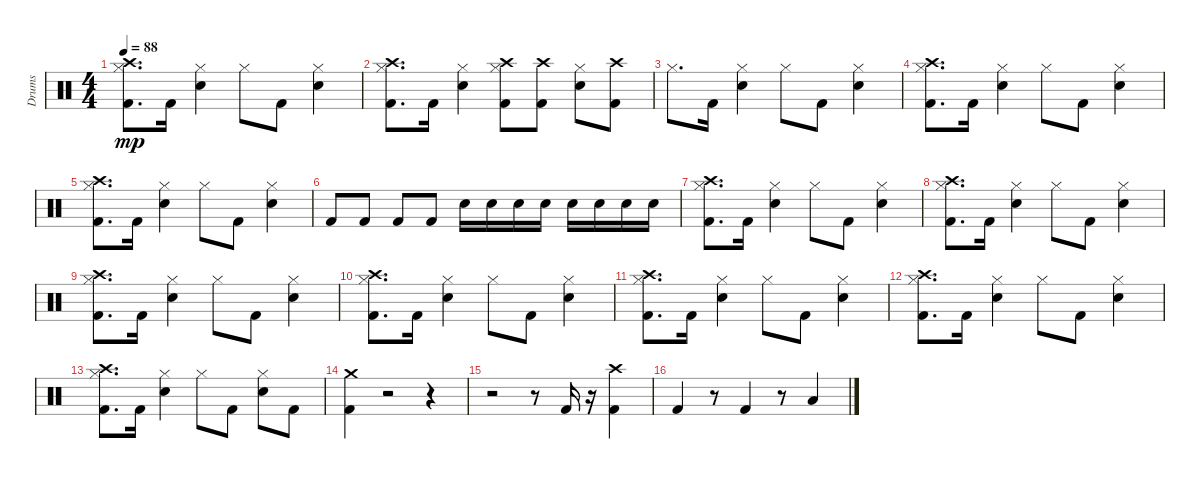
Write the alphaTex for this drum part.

\track ("Drums" "Drums") {instrument percussion}
\staff {score}
\articulation defaults
\ts (4 4)
\tempo 88
\clef neutral
\ks c
("Crash high (hit)" "Hi-Hat (closed)" "Kick (hit) 2").8{d dy mp} "Kick (hit) 2".16 ("Snare (hit) 2" "Hi-Hat (closed)").4 "Hi-Hat (closed)".8 "Kick (hit) 2".8 ("Snare (hit) 2" "Hi-Hat (closed)").4 |
("Crash high (hit)" "Hi-Hat (closed)" "Kick (hit) 2").8{d} "Kick (hit) 2".16 ("Snare (hit) 2" "Hi-Hat (closed)").4 ("Hi-Hat (closed)" "Kick (hit) 2" "Crash high (hit)").8 ("Kick (hit) 2" "Crash high (hit)").8 ("Hi-Hat (closed)" "Snare (hit) 2").8 ("Crash high (hit)" "Kick (hit) 2").8 |
"Hi-Hat (closed)".8{d} "Kick (hit) 2".16 ("Snare (hit) 2" "Hi-Hat (closed)").4 "Hi-Hat (closed)".8 "Kick (hit) 2".8 ("Snare (hit) 2" "Hi-Hat (closed)").4 |
("Crash high (hit)" "Hi-Hat (closed)" "Kick (hit) 2").8{d} "Kick (hit) 2".16 ("Snare (hit) 2" "Hi-Hat (closed)").4 "Hi-Hat (closed)".8 "Kick (hit) 2".8 ("Snare (hit) 2" "Hi-Hat (closed)").4 |
("Crash high (hit)" "Hi-Hat (closed)" "Kick (hit) 2").8{d} "Kick (hit) 2".16 ("Snare (hit) 2" "Hi-Hat (closed)").4 "Hi-Hat (closed)".8 "Kick (hit) 2".8 ("Snare (hit) 2" "Hi-Hat (closed)").4 |
"Kick (hit) 2".8 "Kick (hit) 2".8 "Kick (hit) 2".8 "Kick (hit) 2".8 "Snare (hit) 2".16 "Snare (hit) 2".16 "Snare (hit) 2".16 "Snare (hit) 2".16 "Snare (hit) 2".16 "Snare (hit) 2".16 "Snare (hit) 2".16 "Snare (hit) 2".16 |
("Crash high (hit)" "Hi-Hat (closed)" "Kick (hit) 2").8{d} "Kick (hit) 2".16 ("Snare (hit) 2" "Hi-Hat (closed)").4 "Hi-Hat (closed)".8 "Kick (hit) 2".8 ("Snare (hit) 2" "Hi-Hat (closed)").4 |
("Crash high (hit)" "Hi-Hat (closed)" "Kick (hit) 2").8{d} "Kick (hit) 2".16 ("Snare (hit) 2" "Hi-Hat (closed)").4 "Hi-Hat (closed)".8 "Kick (hit) 2".8 ("Snare (hit) 2" "Hi-Hat (closed)").4 |
("Crash high (hit)" "Hi-Hat (closed)" "Kick (hit) 2").8{d} "Kick (hit) 2".16 ("Snare (hit) 2" "Hi-Hat (closed)").4 "Hi-Hat (closed)".8 "Kick (hit) 2".8 ("Snare (hit) 2" "Hi-Hat (closed)").4 |
("Crash high (hit)" "Hi-Hat (closed)" "Kick (hit) 2").8{d} "Kick (hit) 2".16 ("Snare (hit) 2" "Hi-Hat (closed)").4 "Hi-Hat (closed)".8 "Kick (hit) 2".8 ("Snare (hit) 2" "Hi-Hat (closed)").4 |
("Crash high (hit)" "Hi-Hat (closed)" "Kick (hit) 2").8{d} "Kick (hit) 2".16 ("Snare (hit) 2" "Hi-Hat (closed)").4 "Hi-Hat (closed)".8 "Kick (hit) 2".8 ("Snare (hit) 2" "Hi-Hat (closed)").4 |
("Crash high (hit)" "Hi-Hat (closed)" "Kick (hit) 2").8{d} "Kick (hit) 2".16 ("Snare (hit) 2" "Hi-Hat (closed)").4 "Hi-Hat (closed)".8 "Kick (hit) 2".8 ("Snare (hit) 2" "Hi-Hat (closed)").4 |
("Crash high (hit)" "Hi-Hat (closed)" "Kick (hit) 2").8{d} "Kick (hit) 2".16 ("Snare (hit) 2" "Hi-Hat (closed)").4 "Hi-Hat (closed)".8 "Kick (hit) 2".8 ("Snare (hit) 2" "Hi-Hat (closed)").8 "Kick (hit) 2".8 |
("Kick (hit) 2" "Crash medium (hit)").4 r.2 r.4 |
r.2 r.8 "Kick (hit) 2".16 r.16 ("Kick (hit) 2" "Crash high (hit)").4 |
"Kick (hit) 2".4 r.8 "Kick (hit) 2".4 r.8 "Low Floor Tom (hit)".4
